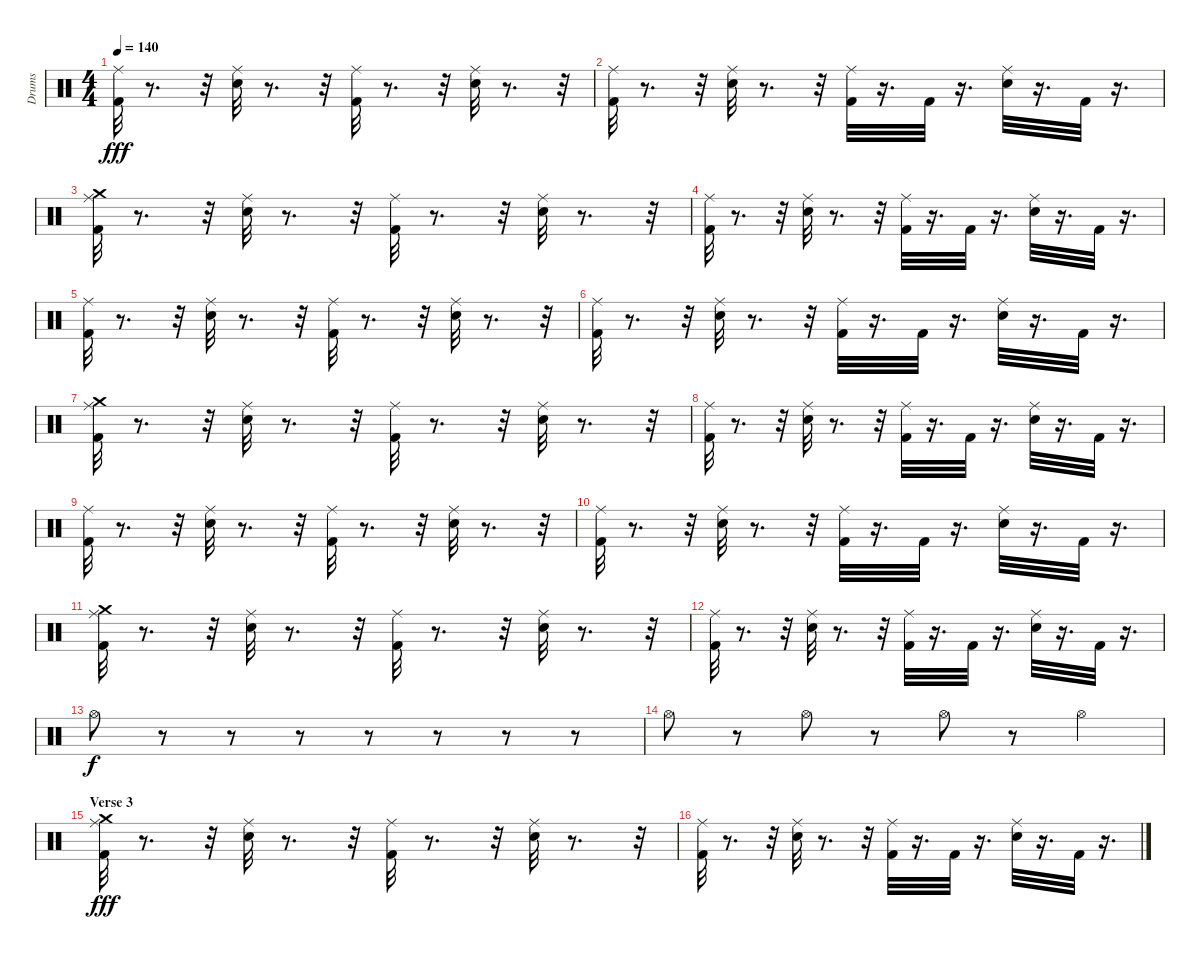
\track ("Drums" "Drums") {instrument percussion}
\staff {score}
\articulation defaults
\ts (4 4)
\tempo 140
\clef neutral
\ks c
("Kick (hit) 2" "Ride (middle)").32{dy fff} r.8{d} r.32 ("Ride (middle)" "Snare (hit) 2").32 r.8{d} r.32 ("Kick (hit) 2" "Ride (middle)").32 r.8{d} r.32 ("Ride (middle)" "Snare (hit) 2").32 r.8{d} r.32 |
("Kick (hit) 2" "Ride (middle)").32 r.8{d} r.32 ("Ride (middle)" "Snare (hit) 2").32 r.8{d} r.32 ("Kick (hit) 2" "Ride (middle)").32 r.16{d} "Kick (hit) 2".32 r.16{d} ("Ride (middle)" "Snare (hit) 2").32 r.16{d} "Kick (hit) 2".32 r.16{d} |
("Crash medium (hit)" "Kick (hit) 2" "Ride (middle)").32 r.8{d} r.32 ("Ride (middle)" "Snare (hit) 2").32 r.8{d} r.32 ("Kick (hit) 2" "Ride (middle)").32 r.8{d} r.32 ("Ride (middle)" "Snare (hit) 2").32 r.8{d} r.32 |
("Kick (hit) 2" "Ride (middle)").32 r.8{d} r.32 ("Ride (middle)" "Snare (hit) 2").32 r.8{d} r.32 ("Kick (hit) 2" "Ride (middle)").32 r.16{d} "Kick (hit) 2".32 r.16{d} ("Ride (middle)" "Snare (hit) 2").32 r.16{d} "Kick (hit) 2".32 r.16{d} |
("Kick (hit) 2" "Ride (middle)").32 r.8{d} r.32 ("Ride (middle)" "Snare (hit) 2").32 r.8{d} r.32 ("Kick (hit) 2" "Ride (middle)").32 r.8{d} r.32 ("Ride (middle)" "Snare (hit) 2").32 r.8{d} r.32 |
("Kick (hit) 2" "Ride (middle)").32 r.8{d} r.32 ("Ride (middle)" "Snare (hit) 2").32 r.8{d} r.32 ("Kick (hit) 2" "Ride (middle)").32 r.16{d} "Kick (hit) 2".32 r.16{d} ("Ride (middle)" "Snare (hit) 2").32 r.16{d} "Kick (hit) 2".32 r.16{d} |
("Crash medium (hit)" "Kick (hit) 2" "Ride (middle)").32 r.8{d} r.32 ("Ride (middle)" "Snare (hit) 2").32 r.8{d} r.32 ("Kick (hit) 2" "Ride (middle)").32 r.8{d} r.32 ("Ride (middle)" "Snare (hit) 2").32 r.8{d} r.32 |
("Kick (hit) 2" "Ride (middle)").32 r.8{d} r.32 ("Ride (middle)" "Snare (hit) 2").32 r.8{d} r.32 ("Kick (hit) 2" "Ride (middle)").32 r.16{d} "Kick (hit) 2".32 r.16{d} ("Ride (middle)" "Snare (hit) 2").32 r.16{d} "Kick (hit) 2".32 r.16{d} |
("Kick (hit) 2" "Ride (middle)").32 r.8{d} r.32 ("Ride (middle)" "Snare (hit) 2").32 r.8{d} r.32 ("Kick (hit) 2" "Ride (middle)").32 r.8{d} r.32 ("Ride (middle)" "Snare (hit) 2").32 r.8{d} r.32 |
("Kick (hit) 2" "Ride (middle)").32 r.8{d} r.32 ("Ride (middle)" "Snare (hit) 2").32 r.8{d} r.32 ("Kick (hit) 2" "Ride (middle)").32 r.16{d} "Kick (hit) 2".32 r.16{d} ("Ride (middle)" "Snare (hit) 2").32 r.16{d} "Kick (hit) 2".32 r.16{d} |
("Crash medium (hit)" "Kick (hit) 2" "Ride (middle)").32 r.8{d} r.32 ("Ride (middle)" "Snare (hit) 2").32 r.8{d} r.32 ("Kick (hit) 2" "Ride (middle)").32 r.8{d} r.32 ("Ride (middle)" "Snare (hit) 2").32 r.8{d} r.32 |
("Kick (hit) 2" "Ride (middle)").32 r.8{d} r.32 ("Ride (middle)" "Snare (hit) 2").32 r.8{d} r.32 ("Kick (hit) 2" "Ride (middle)").32 r.16{d} "Kick (hit) 2".32 r.16{d} ("Ride (middle)" "Snare (hit) 2").32 r.16{d} "Kick (hit) 2".32 r.16{d} |
"Hi-Hat (open)".8{dy f} r.8 r.8 r.8 r.8 r.8 r.8 r.8 |
"Hi-Hat (open)".8 r.8 "Hi-Hat (open)".8 r.8 "Hi-Hat (open)".8 r.8 "Hi-Hat (open)".4 |
\section ("" "Verse 3")
("Crash medium (hit)" "Kick (hit) 2" "Ride (middle)").32{dy fff} r.8{d} r.32 ("Ride (middle)" "Snare (hit) 2").32 r.8{d} r.32 ("Kick (hit) 2" "Ride (middle)").32 r.8{d} r.32 ("Ride (middle)" "Snare (hit) 2").32 r.8{d} r.32 |
("Kick (hit) 2" "Ride (middle)").32 r.8{d} r.32 ("Ride (middle)" "Snare (hit) 2").32 r.8{d} r.32 ("Kick (hit) 2" "Ride (middle)").32 r.16{d} "Kick (hit) 2".32 r.16{d} ("Ride (middle)" "Snare (hit) 2").32 r.16{d} "Kick (hit) 2".32 r.16{d}
